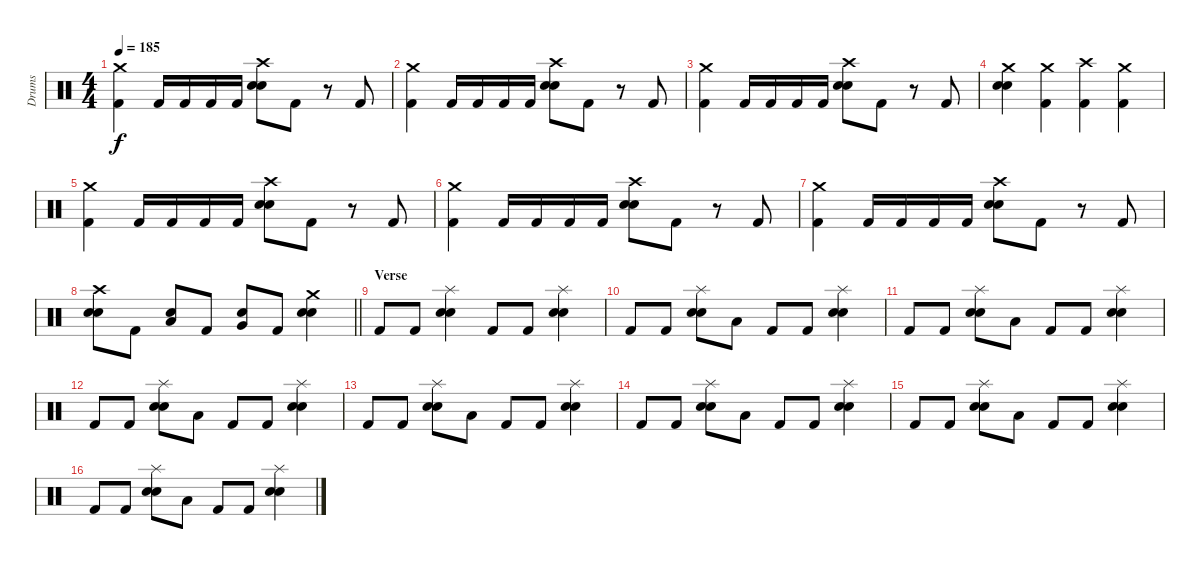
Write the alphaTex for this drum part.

\track ("Drums" "Drums") {instrument percussion}
\staff {score}
\articulation defaults
\ts (4 4)
\tempo 185
\clef neutral
\ks c
("Crash medium (hit)" "Kick (hit) 2").4{dy f} "Kick (hit) 2".16 "Kick (hit) 2".16 "Kick (hit) 2".16 "Kick (hit) 2".16 ("Crash high (hit)" "Electric Snare (hit)" "Snare (hit) 2").8 "Kick (hit) 2".8 r.8 "Kick (hit) 2".8 |
("Crash medium (hit)" "Kick (hit) 2").4 "Kick (hit) 2".16 "Kick (hit) 2".16 "Kick (hit) 2".16 "Kick (hit) 2".16 ("Crash high (hit)" "Electric Snare (hit)" "Snare (hit) 2").8 "Kick (hit) 2".8 r.8 "Kick (hit) 2".8 |
("Crash medium (hit)" "Kick (hit) 2").4 "Kick (hit) 2".16 "Kick (hit) 2".16 "Kick (hit) 2".16 "Kick (hit) 2".16 ("Crash high (hit)" "Electric Snare (hit)" "Snare (hit) 2").8 "Kick (hit) 2".8 r.8 "Kick (hit) 2".8 |
("Crash medium (hit)" "Electric Snare (hit)" "Snare (hit) 2").4 ("Crash medium (hit)" "Kick (hit) 2").4 ("Crash high (hit)" "Kick (hit) 2").4 ("Crash medium (hit)" "Kick (hit) 2").4 |
("Crash medium (hit)" "Kick (hit) 2").4 "Kick (hit) 2".16 "Kick (hit) 2".16 "Kick (hit) 2".16 "Kick (hit) 2".16 ("Crash high (hit)" "Electric Snare (hit)" "Snare (hit) 2").8 "Kick (hit) 2".8 r.8 "Kick (hit) 2".8 |
("Crash medium (hit)" "Kick (hit) 2").4 "Kick (hit) 2".16 "Kick (hit) 2".16 "Kick (hit) 2".16 "Kick (hit) 2".16 ("Crash high (hit)" "Electric Snare (hit)" "Snare (hit) 2").8 "Kick (hit) 2".8 r.8 "Kick (hit) 2".8 |
("Crash medium (hit)" "Kick (hit) 2").4 "Kick (hit) 2".16 "Kick (hit) 2".16 "Kick (hit) 2".16 "Kick (hit) 2".16 ("Crash high (hit)" "Electric Snare (hit)" "Snare (hit) 2").8 "Kick (hit) 2".8 r.8 "Kick (hit) 2".8 |
\barLineRight lightlight
("Crash high (hit)" "Electric Snare (hit)" "Snare (hit) 2").8 "Kick (hit) 2".8 ("Electric Snare (hit)" "Low Tom (hit)").8 "Kick (hit) 2".8 ("Electric Snare (hit)" "Very Low Tom (hit)").8 "Kick (hit) 2".8 ("Crash medium (hit)" "Electric Snare (hit)" "Snare (hit) 2").4 |
\section ("" "Verse")
"Kick (hit) 2".8 "Kick (hit) 2".8 ("Splash (hit)" "Electric Snare (hit)" "Snare (hit) 2").4 "Kick (hit) 2".8 "Kick (hit) 2".8 ("Splash (hit)" "Electric Snare (hit)" "Snare (hit) 2").4 |
"Kick (hit) 2".8 "Kick (hit) 2".8 ("Splash (hit)" "Electric Snare (hit)" "Snare (hit) 2").8 "Low Tom (hit)".8 "Kick (hit) 2".8 "Kick (hit) 2".8 ("Splash (hit)" "Electric Snare (hit)" "Snare (hit) 2").4 |
"Kick (hit) 2".8 "Kick (hit) 2".8 ("Splash (hit)" "Electric Snare (hit)" "Snare (hit) 2").8 "Low Tom (hit)".8 "Kick (hit) 2".8 "Kick (hit) 2".8 ("Splash (hit)" "Electric Snare (hit)" "Snare (hit) 2").4 |
"Kick (hit) 2".8 "Kick (hit) 2".8 ("Splash (hit)" "Electric Snare (hit)" "Snare (hit) 2").8 "Low Tom (hit)".8 "Kick (hit) 2".8 "Kick (hit) 2".8 ("Splash (hit)" "Electric Snare (hit)" "Snare (hit) 2").4 |
"Kick (hit) 2".8 "Kick (hit) 2".8 ("Splash (hit)" "Electric Snare (hit)" "Snare (hit) 2").8 "Low Tom (hit)".8 "Kick (hit) 2".8 "Kick (hit) 2".8 ("Splash (hit)" "Electric Snare (hit)" "Snare (hit) 2").4 |
"Kick (hit) 2".8 "Kick (hit) 2".8 ("Splash (hit)" "Electric Snare (hit)" "Snare (hit) 2").8 "Low Tom (hit)".8 "Kick (hit) 2".8 "Kick (hit) 2".8 ("Splash (hit)" "Electric Snare (hit)" "Snare (hit) 2").4 |
"Kick (hit) 2".8 "Kick (hit) 2".8 ("Splash (hit)" "Electric Snare (hit)" "Snare (hit) 2").8 "Low Tom (hit)".8 "Kick (hit) 2".8 "Kick (hit) 2".8 ("Splash (hit)" "Electric Snare (hit)" "Snare (hit) 2").4 |
"Kick (hit) 2".8 "Kick (hit) 2".8 ("Splash (hit)" "Electric Snare (hit)" "Snare (hit) 2").8 "Low Tom (hit)".8 "Kick (hit) 2".8 "Kick (hit) 2".8 ("Splash (hit)" "Electric Snare (hit)" "Snare (hit) 2").4
